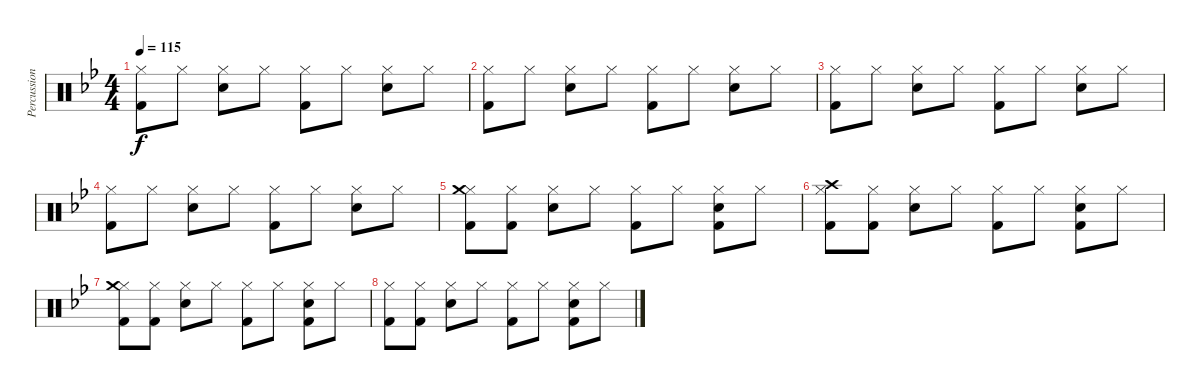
\track ("Percussions" "Percussion") {instrument percussion}
\staff {score}
\articulation defaults
\ts (4 4)
\tempo 115
\clef neutral
\ks bb
("Hi-Hat (closed)" "Kick (hit) 2").8{dy f} "Hi-Hat (closed)".8 ("Hi-Hat (closed)" "Electric Snare (hit)").8 "Hi-Hat (closed)".8 ("Hi-Hat (closed)" "Kick (hit) 2").8 "Hi-Hat (closed)".8 ("Hi-Hat (closed)" "Electric Snare (hit)").8 "Hi-Hat (closed)".8 |
("Hi-Hat (closed)" "Kick (hit) 2").8 "Hi-Hat (closed)".8 ("Hi-Hat (closed)" "Electric Snare (hit)").8 "Hi-Hat (closed)".8 ("Hi-Hat (closed)" "Kick (hit) 2").8 "Hi-Hat (closed)".8 ("Hi-Hat (closed)" "Electric Snare (hit)").8 "Hi-Hat (closed)".8 |
("Hi-Hat (closed)" "Kick (hit) 2").8 "Hi-Hat (closed)".8 ("Hi-Hat (closed)" "Electric Snare (hit)").8 "Hi-Hat (closed)".8 ("Hi-Hat (closed)" "Kick (hit) 2").8 "Hi-Hat (closed)".8 ("Hi-Hat (closed)" "Electric Snare (hit)").8 "Hi-Hat (closed)".8 |
("Hi-Hat (closed)" "Kick (hit) 2").8 "Hi-Hat (closed)".8 ("Hi-Hat (closed)" "Electric Snare (hit)").8 "Hi-Hat (closed)".8 ("Hi-Hat (closed)" "Kick (hit) 2").8 "Hi-Hat (closed)".8 ("Hi-Hat (closed)" "Electric Snare (hit)").8 "Hi-Hat (closed)".8 |
("Hi-Hat (closed)" "Crash medium (hit)" "Kick (hit) 2").8 ("Hi-Hat (closed)" "Kick (hit) 2").8 ("Hi-Hat (closed)" "Electric Snare (hit)").8 "Hi-Hat (closed)".8 ("Hi-Hat (closed)" "Kick (hit) 2").8 "Hi-Hat (closed)".8 ("Hi-Hat (closed)" "Electric Snare (hit)" "Kick (hit) 2").8 "Hi-Hat (closed)".8 |
("Hi-Hat (closed)" "Crash high (hit)" "Kick (hit) 2").8 ("Hi-Hat (closed)" "Kick (hit) 2").8 ("Hi-Hat (closed)" "Electric Snare (hit)").8 "Hi-Hat (closed)".8 ("Hi-Hat (closed)" "Kick (hit) 2").8 "Hi-Hat (closed)".8 ("Hi-Hat (closed)" "Electric Snare (hit)" "Kick (hit) 2").8 "Hi-Hat (closed)".8 |
("Hi-Hat (closed)" "Crash medium (hit)" "Kick (hit) 2").8 ("Hi-Hat (closed)" "Kick (hit) 2").8 ("Hi-Hat (closed)" "Electric Snare (hit)").8 "Hi-Hat (closed)".8 ("Hi-Hat (closed)" "Kick (hit) 2").8 "Hi-Hat (closed)".8 ("Hi-Hat (closed)" "Electric Snare (hit)" "Kick (hit) 2").8 "Hi-Hat (closed)".8 |
("Hi-Hat (closed)" "Kick (hit) 2").8 ("Hi-Hat (closed)" "Kick (hit) 2").8 ("Hi-Hat (closed)" "Electric Snare (hit)").8 "Hi-Hat (closed)".8 ("Hi-Hat (closed)" "Kick (hit) 2").8 "Hi-Hat (closed)".8 ("Hi-Hat (closed)" "Electric Snare (hit)" "Kick (hit) 2").8 "Hi-Hat (closed)".8
